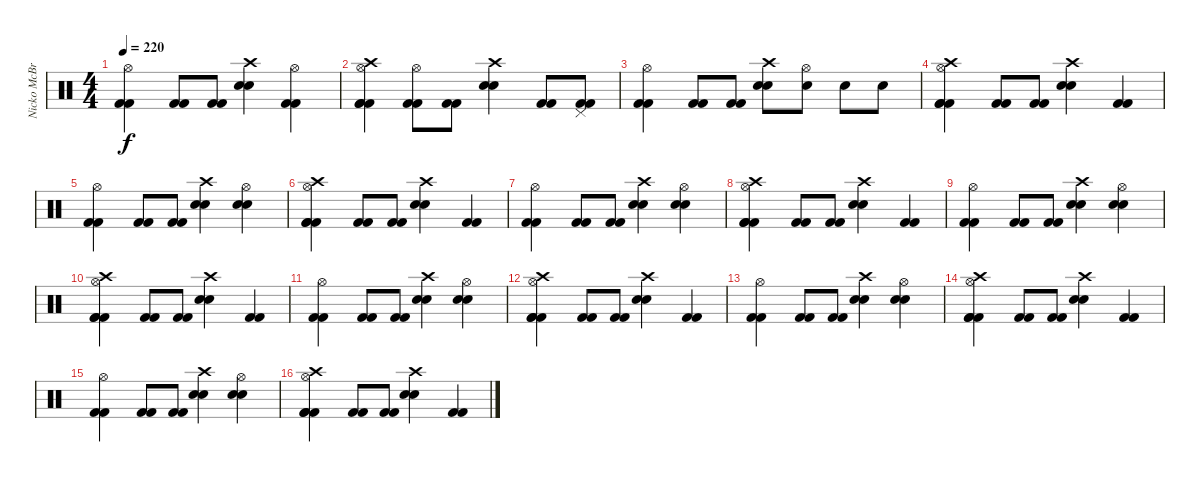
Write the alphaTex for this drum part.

\track ("Nicko McBrain" "Nicko McBr") {instrument percussion}
\staff {score}
\articulation defaults
\ts (4 4)
\tempo 220
\clef neutral
\ks c
("Hi-Hat (open)" "Kick (hit) 2" "Kick (hit) 2").4{dy f} ("Kick (hit) 2" "Kick (hit) 2").8 ("Kick (hit) 2" "Kick (hit) 2").8 ("Crash high (hit)" "Snare (hit) 2" "Snare (hit) 2").4 ("Hi-Hat (open)" "Kick (hit) 2" "Kick (hit) 2").4 |
("Crash high (hit)" "Hi-Hat (open)" "Kick (hit) 2" "Kick (hit) 2" "Kick (hit) 2").4 ("Hi-Hat (open)" "Kick (hit) 2" "Kick (hit) 2").8 ("Kick (hit) 2" "Kick (hit) 2").8 ("Crash high (hit)" "Snare (hit) 2" "Snare (hit) 2").4 ("Kick (hit) 2" "Kick (hit) 2").8 ("Pedal Hi-Hat (hit)" "Kick (hit) 2" "Kick (hit) 2").8 |
("Hi-Hat (open)" "Kick (hit) 2" "Kick (hit) 2").4 ("Kick (hit) 2" "Kick (hit) 2").8 ("Kick (hit) 2" "Kick (hit) 2").8 ("Crash high (hit)" "Snare (hit) 2" "Snare (hit) 2").8 ("Hi-Hat (open)" "Snare (hit) 2").8 "Snare (hit) 2".8 "Snare (hit) 2".8 |
("Crash high (hit)" "Hi-Hat (open)" "Kick (hit) 2" "Kick (hit) 2" "Kick (hit) 2").4 ("Kick (hit) 2" "Kick (hit) 2").8 ("Kick (hit) 2" "Kick (hit) 2").8 ("Crash high (hit)" "Snare (hit) 2" "Snare (hit) 2").4 ("Kick (hit) 2" "Kick (hit) 2").4 |
("Hi-Hat (open)" "Kick (hit) 2" "Kick (hit) 2").4 ("Kick (hit) 2" "Kick (hit) 2").8 ("Kick (hit) 2" "Kick (hit) 2").8 ("Crash high (hit)" "Snare (hit) 2" "Snare (hit) 2").4 ("Hi-Hat (open)" "Snare (hit) 2" "Snare (hit) 2").4 |
("Crash high (hit)" "Hi-Hat (open)" "Kick (hit) 2" "Kick (hit) 2" "Kick (hit) 2").4 ("Kick (hit) 2" "Kick (hit) 2").8 ("Kick (hit) 2" "Kick (hit) 2").8 ("Crash high (hit)" "Snare (hit) 2" "Snare (hit) 2").4 ("Kick (hit) 2" "Kick (hit) 2").4 |
("Hi-Hat (open)" "Kick (hit) 2" "Kick (hit) 2").4 ("Kick (hit) 2" "Kick (hit) 2").8 ("Kick (hit) 2" "Kick (hit) 2").8 ("Crash high (hit)" "Snare (hit) 2" "Snare (hit) 2").4 ("Hi-Hat (open)" "Snare (hit) 2" "Snare (hit) 2").4 |
("Crash high (hit)" "Hi-Hat (open)" "Kick (hit) 2" "Kick (hit) 2" "Kick (hit) 2").4 ("Kick (hit) 2" "Kick (hit) 2").8 ("Kick (hit) 2" "Kick (hit) 2").8 ("Crash high (hit)" "Snare (hit) 2" "Snare (hit) 2").4 ("Kick (hit) 2" "Kick (hit) 2").4 |
("Hi-Hat (open)" "Kick (hit) 2" "Kick (hit) 2").4 ("Kick (hit) 2" "Kick (hit) 2").8 ("Kick (hit) 2" "Kick (hit) 2").8 ("Crash high (hit)" "Snare (hit) 2" "Snare (hit) 2").4 ("Hi-Hat (open)" "Snare (hit) 2" "Snare (hit) 2").4 |
("Crash high (hit)" "Hi-Hat (open)" "Kick (hit) 2" "Kick (hit) 2" "Kick (hit) 2").4 ("Kick (hit) 2" "Kick (hit) 2").8 ("Kick (hit) 2" "Kick (hit) 2").8 ("Crash high (hit)" "Snare (hit) 2" "Snare (hit) 2").4 ("Kick (hit) 2" "Kick (hit) 2").4 |
("Hi-Hat (open)" "Kick (hit) 2" "Kick (hit) 2").4 ("Kick (hit) 2" "Kick (hit) 2").8 ("Kick (hit) 2" "Kick (hit) 2").8 ("Crash high (hit)" "Snare (hit) 2" "Snare (hit) 2").4 ("Hi-Hat (open)" "Snare (hit) 2" "Snare (hit) 2").4 |
("Crash high (hit)" "Hi-Hat (open)" "Kick (hit) 2" "Kick (hit) 2" "Kick (hit) 2").4 ("Kick (hit) 2" "Kick (hit) 2").8 ("Kick (hit) 2" "Kick (hit) 2").8 ("Crash high (hit)" "Snare (hit) 2" "Snare (hit) 2").4 ("Kick (hit) 2" "Kick (hit) 2").4 |
("Hi-Hat (open)" "Kick (hit) 2" "Kick (hit) 2").4 ("Kick (hit) 2" "Kick (hit) 2").8 ("Kick (hit) 2" "Kick (hit) 2").8 ("Crash high (hit)" "Snare (hit) 2" "Snare (hit) 2").4 ("Hi-Hat (open)" "Snare (hit) 2" "Snare (hit) 2").4 |
("Crash high (hit)" "Hi-Hat (open)" "Kick (hit) 2" "Kick (hit) 2" "Kick (hit) 2").4 ("Kick (hit) 2" "Kick (hit) 2").8 ("Kick (hit) 2" "Kick (hit) 2").8 ("Crash high (hit)" "Snare (hit) 2" "Snare (hit) 2").4 ("Kick (hit) 2" "Kick (hit) 2").4 |
("Hi-Hat (open)" "Kick (hit) 2" "Kick (hit) 2").4 ("Kick (hit) 2" "Kick (hit) 2").8 ("Kick (hit) 2" "Kick (hit) 2").8 ("Crash high (hit)" "Snare (hit) 2" "Snare (hit) 2").4 ("Hi-Hat (open)" "Snare (hit) 2" "Snare (hit) 2").4 |
("Crash high (hit)" "Hi-Hat (open)" "Kick (hit) 2" "Kick (hit) 2" "Kick (hit) 2").4 ("Kick (hit) 2" "Kick (hit) 2").8 ("Kick (hit) 2" "Kick (hit) 2").8 ("Crash high (hit)" "Snare (hit) 2" "Snare (hit) 2").4 ("Kick (hit) 2" "Kick (hit) 2").4
